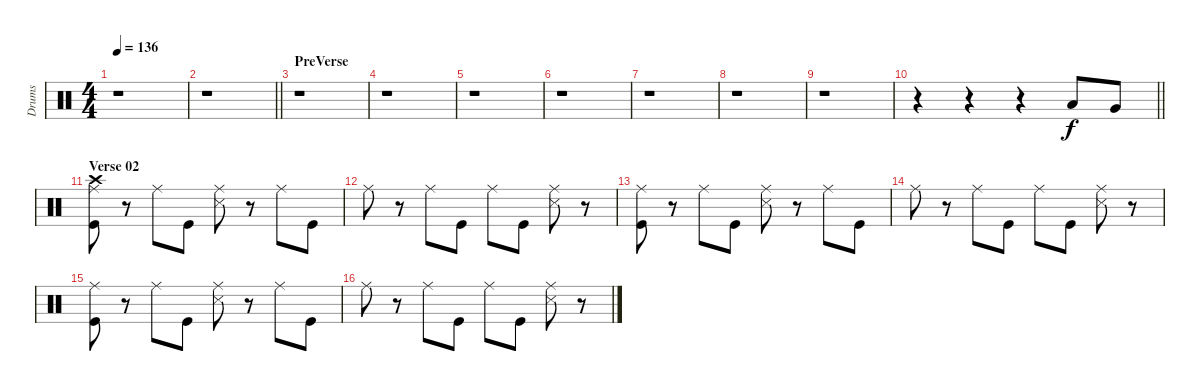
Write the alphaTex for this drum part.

\track ("Drums" "Drums") {instrument percussion}
\staff {score}
\articulation defaults
\ts (4 4)
\tempo 136
\clef neutral
\ks c
r.1{dy f} |
\barLineRight lightlight
r.1 |
\section ("" "PreVerse")
r.1 |
r.1 |
r.1 |
r.1 |
r.1 |
r.1 |
r.1 |
\barLineRight lightlight
r.4 r.4 r.4 "Low Tom (hit)".8 "Very Low Tom (hit)".8 |
\section ("" "Verse 02")
("Crash high (hit)" "Kick (hit)" "Ride (middle)").8 r.8 "Ride (middle)".8 "Kick (hit)".8 ("Snare (side stick) 3" "Ride (middle)").8 r.8 "Ride (middle)".8 "Kick (hit)".8 |
"Ride (middle)".8 r.8 "Ride (middle)".8 "Kick (hit)".8 "Ride (middle)".8 "Kick (hit)".8 ("Snare (side stick) 3" "Ride (middle)").8 r.8 |
("Kick (hit)" "Ride (middle)").8 r.8 "Ride (middle)".8 "Kick (hit)".8 ("Snare (side stick) 3" "Ride (middle)").8 r.8 "Ride (middle)".8 "Kick (hit)".8 |
"Ride (middle)".8 r.8 "Ride (middle)".8 "Kick (hit)".8 "Ride (middle)".8 "Kick (hit)".8 ("Snare (side stick) 3" "Ride (middle)").8 r.8 |
("Kick (hit)" "Ride (middle)").8 r.8 "Ride (middle)".8 "Kick (hit)".8 ("Snare (side stick) 3" "Ride (middle)").8 r.8 "Ride (middle)".8 "Kick (hit)".8 |
"Ride (middle)".8 r.8 "Ride (middle)".8 "Kick (hit)".8 "Ride (middle)".8 "Kick (hit)".8 ("Snare (side stick) 3" "Ride (middle)").8 r.8
